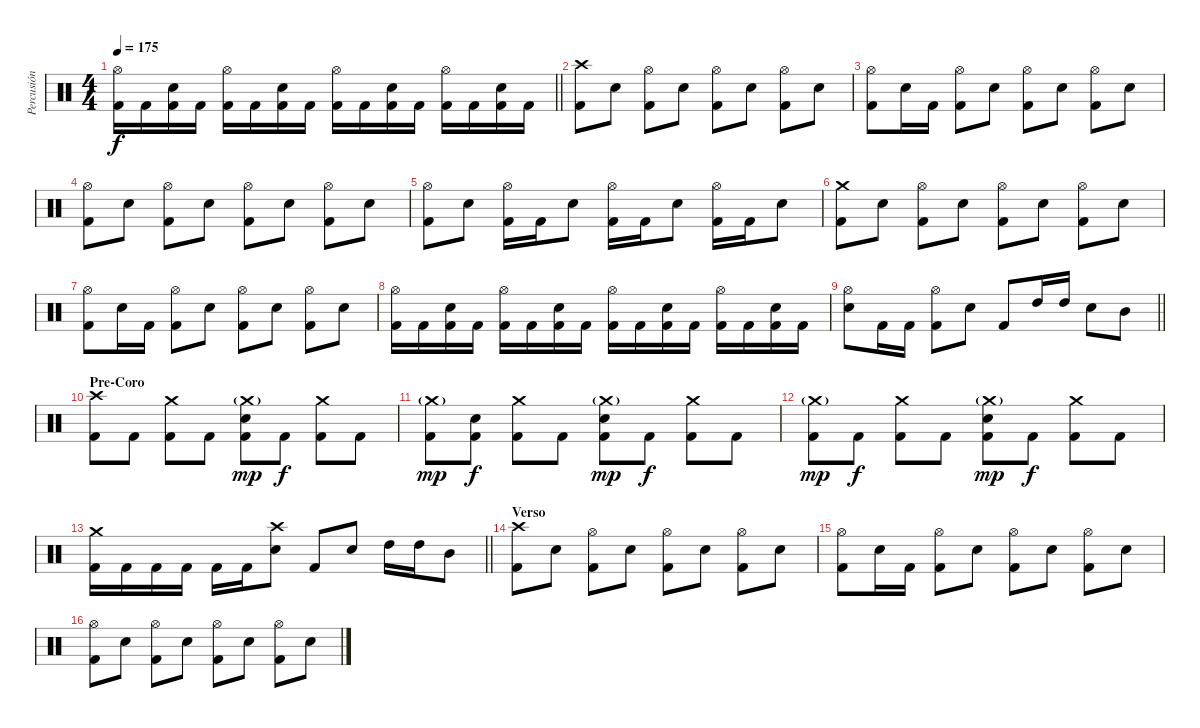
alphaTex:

\track ("Percusión" "Percusión") {instrument percussion}
\staff {score}
\articulation defaults
\ts (4 4)
\tempo 175
\clef neutral
\barLineRight lightlight
\ks c
("Hi-Hat (open)" "Kick (hit) 2").16{dy f} "Kick (hit) 2".16 ("Snare (hit) 2" "Kick (hit) 2").16 "Kick (hit) 2".16 ("Hi-Hat (open)" "Kick (hit) 2").16 "Kick (hit) 2".16 ("Snare (hit) 2" "Kick (hit) 2").16 "Kick (hit) 2".16 ("Hi-Hat (open)" "Kick (hit) 2").16 "Kick (hit) 2".16 ("Snare (hit) 2" "Kick (hit) 2").16 "Kick (hit) 2".16 ("Hi-Hat (open)" "Kick (hit) 2").16 "Kick (hit) 2".16 ("Snare (hit) 2" "Kick (hit) 2").16 "Kick (hit) 2".16 |
\section ("" "")
("Crash high (hit)" "Kick (hit) 2").8 "Snare (hit) 2".8 ("Hi-Hat (open)" "Kick (hit) 2").8 "Snare (hit) 2".8 ("Hi-Hat (open)" "Kick (hit) 2").8 "Snare (hit) 2".8 ("Hi-Hat (open)" "Kick (hit) 2").8 "Snare (hit) 2".8 |
("Hi-Hat (open)" "Kick (hit) 2").8 "Snare (hit) 2".16 "Kick (hit) 2".16 ("Hi-Hat (open)" "Kick (hit) 2").8 "Snare (hit) 2".8 ("Hi-Hat (open)" "Kick (hit) 2").8 "Snare (hit) 2".8 ("Hi-Hat (open)" "Kick (hit) 2").8 "Snare (hit) 2".8 |
("Hi-Hat (open)" "Kick (hit) 2").8 "Snare (hit) 2".8 ("Hi-Hat (open)" "Kick (hit) 2").8 "Snare (hit) 2".8 ("Hi-Hat (open)" "Kick (hit) 2").8 "Snare (hit) 2".8 ("Hi-Hat (open)" "Kick (hit) 2").8 "Snare (hit) 2".8 |
("Hi-Hat (open)" "Kick (hit) 2").8 "Snare (hit) 2".8 ("Hi-Hat (open)" "Kick (hit) 2").16 "Kick (hit) 2".16 "Snare (hit) 2".8 ("Hi-Hat (open)" "Kick (hit) 2").16 "Kick (hit) 2".16 "Snare (hit) 2".8 ("Hi-Hat (open)" "Kick (hit) 2").16 "Kick (hit) 2".16 "Snare (hit) 2".8 |
("Crash medium (hit)" "Kick (hit) 2").8 "Snare (hit) 2".8 ("Hi-Hat (open)" "Kick (hit) 2").8 "Snare (hit) 2".8 ("Hi-Hat (open)" "Kick (hit) 2").8 "Snare (hit) 2".8 ("Hi-Hat (open)" "Kick (hit) 2").8 "Snare (hit) 2".8 |
("Hi-Hat (open)" "Kick (hit) 2").8 "Snare (hit) 2".16 "Kick (hit) 2".16 ("Hi-Hat (open)" "Kick (hit) 2").8 "Snare (hit) 2".8 ("Hi-Hat (open)" "Kick (hit) 2").8 "Snare (hit) 2".8 ("Hi-Hat (open)" "Kick (hit) 2").8 "Snare (hit) 2".8 |
("Hi-Hat (open)" "Kick (hit) 2").16 "Kick (hit) 2".16 ("Snare (hit) 2" "Kick (hit) 2").16 "Kick (hit) 2".16 ("Hi-Hat (open)" "Kick (hit) 2").16 "Kick (hit) 2".16 ("Snare (hit) 2" "Kick (hit) 2").16 "Kick (hit) 2".16 ("Hi-Hat (open)" "Kick (hit) 2").16 "Kick (hit) 2".16 ("Snare (hit) 2" "Kick (hit) 2").16 "Kick (hit) 2".16 ("Hi-Hat (open)" "Kick (hit) 2").16 "Kick (hit) 2".16 ("Snare (hit) 2" "Kick (hit) 2").16 "Kick (hit) 2".16 |
\barLineRight lightlight
("Hi-Hat (open)" "Snare (hit) 2").8 "Kick (hit) 2".16 "Kick (hit) 2".16 ("Hi-Hat (open)" "Kick (hit) 2").8 "Snare (hit) 2".8 "Kick (hit) 2".8 "High Tom (hit)".16 "High Tom (hit)".16 "Snare (hit) 2".8 "Mid Tom (hit)".8 |
\section ("" "Pre-Coro")
("Crash high (hit)" "Kick (hit) 2").8 "Kick (hit) 2".8 ("Crash medium (hit)" "Kick (hit) 2").8 "Kick (hit) 2".8 ("Crash medium (hit)"{g} "Snare (hit) 2" "Kick (hit) 2").8{dy mp} "Kick (hit) 2".8{dy f} ("Crash medium (hit)" "Kick (hit) 2").8 "Kick (hit) 2".8 |
("Crash medium (hit)"{g} "Kick (hit) 2").8{dy mp} ("Snare (hit) 2" "Kick (hit) 2").8{dy f} ("Crash medium (hit)" "Kick (hit) 2").8 "Kick (hit) 2".8 ("Crash medium (hit)"{g} "Snare (hit) 2" "Kick (hit) 2").8{dy mp} "Kick (hit) 2".8{dy f} ("Crash medium (hit)" "Kick (hit) 2").8 "Kick (hit) 2".8 |
("Crash medium (hit)"{g} "Kick (hit) 2").8{dy mp} "Kick (hit) 2".8{dy f} ("Crash medium (hit)" "Kick (hit) 2").8 "Kick (hit) 2".8 ("Crash medium (hit)"{g} "Snare (hit) 2" "Kick (hit) 2").8{dy mp} "Kick (hit) 2".8{dy f} ("Crash medium (hit)" "Kick (hit) 2").8 "Kick (hit) 2".8 |
\barLineRight lightlight
("Crash medium (hit)" "Kick (hit) 2").16 "Kick (hit) 2".16 "Kick (hit) 2".16 "Kick (hit) 2".16 "Kick (hit) 2".16 "Kick (hit) 2".16 ("Crash high (hit)" "Snare (hit) 2").8 "Kick (hit) 2".8 "Snare (hit) 2".8 "High Tom (hit)".16 "High Tom (hit)".16 "Mid Tom (hit)".8 |
\section ("" "Verso")
("Crash high (hit)" "Kick (hit) 2").8 "Snare (hit) 2".8 ("Hi-Hat (open)" "Kick (hit) 2").8 "Snare (hit) 2".8 ("Hi-Hat (open)" "Kick (hit) 2").8 "Snare (hit) 2".8 ("Hi-Hat (open)" "Kick (hit) 2").8 "Snare (hit) 2".8 |
("Hi-Hat (open)" "Kick (hit) 2").8 "Snare (hit) 2".16 "Kick (hit) 2".16 ("Hi-Hat (open)" "Kick (hit) 2").8 "Snare (hit) 2".8 ("Hi-Hat (open)" "Kick (hit) 2").8 "Snare (hit) 2".8 ("Hi-Hat (open)" "Kick (hit) 2").8 "Snare (hit) 2".8 |
("Hi-Hat (open)" "Kick (hit) 2").8 "Snare (hit) 2".8 ("Hi-Hat (open)" "Kick (hit) 2").8 "Snare (hit) 2".8 ("Hi-Hat (open)" "Kick (hit) 2").8 "Snare (hit) 2".8 ("Hi-Hat (open)" "Kick (hit) 2").8 "Snare (hit) 2".8
